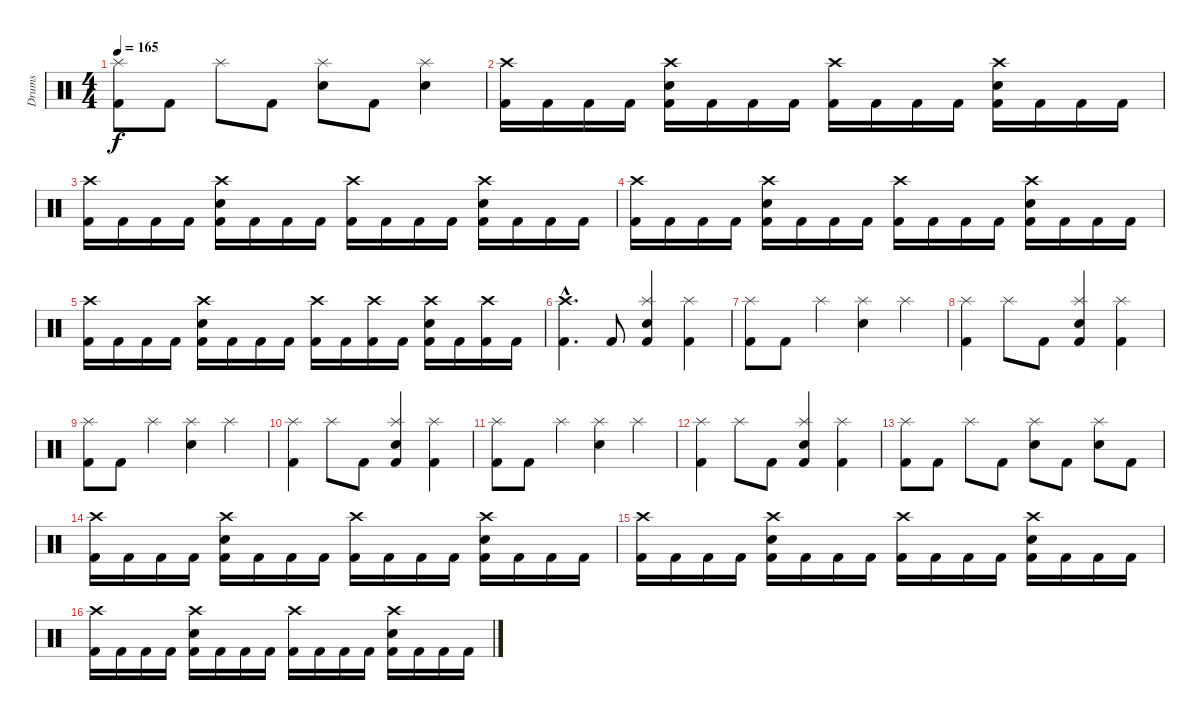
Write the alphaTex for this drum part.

\track ("Drums" "Drums") {instrument percussion}
\staff {score}
\articulation defaults
\ts (4 4)
\tempo 165
\clef neutral
\ks c
("Kick (hit) 2" "Splash (hit)").8{dy f} "Kick (hit) 2".8 "Splash (hit)".8 "Kick (hit) 2".8 ("Snare (hit) 2" "Splash (hit)").8 "Kick (hit) 2".8 ("Snare (hit) 2" "Splash (hit)").4 |
("Kick (hit) 2" "Crash high (hit)").16 "Kick (hit) 2".16 "Kick (hit) 2".16 "Kick (hit) 2".16 ("Kick (hit) 2" "Snare (hit) 2" "Crash high (hit)").16 "Kick (hit) 2".16 "Kick (hit) 2".16 "Kick (hit) 2".16 ("Kick (hit) 2" "Crash high (hit)").16 "Kick (hit) 2".16 "Kick (hit) 2".16 "Kick (hit) 2".16 ("Kick (hit) 2" "Snare (hit) 2" "Crash high (hit)").16 "Kick (hit) 2".16 "Kick (hit) 2".16 "Kick (hit) 2".16 |
("Kick (hit) 2" "Crash high (hit)").16 "Kick (hit) 2".16 "Kick (hit) 2".16 "Kick (hit) 2".16 ("Kick (hit) 2" "Snare (hit) 2" "Crash high (hit)").16 "Kick (hit) 2".16 "Kick (hit) 2".16 "Kick (hit) 2".16 ("Kick (hit) 2" "Crash high (hit)").16 "Kick (hit) 2".16 "Kick (hit) 2".16 "Kick (hit) 2".16 ("Kick (hit) 2" "Snare (hit) 2" "Crash high (hit)").16 "Kick (hit) 2".16 "Kick (hit) 2".16 "Kick (hit) 2".16 |
("Kick (hit) 2" "Crash high (hit)").16 "Kick (hit) 2".16 "Kick (hit) 2".16 "Kick (hit) 2".16 ("Kick (hit) 2" "Snare (hit) 2" "Crash high (hit)").16 "Kick (hit) 2".16 "Kick (hit) 2".16 "Kick (hit) 2".16 ("Kick (hit) 2" "Crash high (hit)").16 "Kick (hit) 2".16 "Kick (hit) 2".16 "Kick (hit) 2".16 ("Kick (hit) 2" "Snare (hit) 2" "Crash high (hit)").16 "Kick (hit) 2".16 "Kick (hit) 2".16 "Kick (hit) 2".16 |
("Kick (hit) 2" "Crash high (hit)").16 "Kick (hit) 2".16 "Kick (hit) 2".16 "Kick (hit) 2".16 ("Kick (hit) 2" "Snare (hit) 2" "Crash high (hit)").16 "Kick (hit) 2".16 "Kick (hit) 2".16 "Kick (hit) 2".16 ("Kick (hit) 2" "Crash high (hit)").16 "Kick (hit) 2".16 ("Kick (hit) 2" "Crash high (hit)").16 "Kick (hit) 2".16 ("Kick (hit) 2" "Snare (hit) 2" "Crash high (hit)").16 "Kick (hit) 2".16 ("Kick (hit) 2" "Crash high (hit)").16 "Kick (hit) 2".16 |
("Kick (hit) 2"{hac} "Crash high (hit)"{hac}).4{d} "Kick (hit) 2".8 ("Kick (hit) 2" "Snare (hit) 2" "Splash (hit)").4 ("Kick (hit) 2" "Splash (hit)").4 |
("Kick (hit) 2" "Splash (hit)").8 "Kick (hit) 2".8 "Splash (hit)".4 ("Snare (hit) 2" "Splash (hit)").4 "Splash (hit)".4 |
("Kick (hit) 2" "Splash (hit)").4 "Splash (hit)".8 "Kick (hit) 2".8 ("Kick (hit) 2" "Snare (hit) 2" "Splash (hit)").4 ("Kick (hit) 2" "Splash (hit)").4 |
("Kick (hit) 2" "Splash (hit)").8 "Kick (hit) 2".8 "Splash (hit)".4 ("Snare (hit) 2" "Splash (hit)").4 "Splash (hit)".4 |
("Kick (hit) 2" "Splash (hit)").4 "Splash (hit)".8 "Kick (hit) 2".8 ("Kick (hit) 2" "Snare (hit) 2" "Splash (hit)").4 ("Kick (hit) 2" "Splash (hit)").4 |
("Kick (hit) 2" "Splash (hit)").8 "Kick (hit) 2".8 "Splash (hit)".4 ("Snare (hit) 2" "Splash (hit)").4 "Splash (hit)".4 |
("Kick (hit) 2" "Splash (hit)").4 "Splash (hit)".8 "Kick (hit) 2".8 ("Kick (hit) 2" "Snare (hit) 2" "Splash (hit)").4 ("Kick (hit) 2" "Splash (hit)").4 |
("Kick (hit) 2" "Splash (hit)").8 "Kick (hit) 2".8 "Splash (hit)".8 "Kick (hit) 2".8 ("Snare (hit) 2" "Splash (hit)").8 "Kick (hit) 2".8 ("Snare (hit) 2" "Splash (hit)").8 "Kick (hit) 2".8 |
("Kick (hit) 2" "Crash high (hit)").16 "Kick (hit) 2".16 "Kick (hit) 2".16 "Kick (hit) 2".16 ("Kick (hit) 2" "Snare (hit) 2" "Crash high (hit)").16 "Kick (hit) 2".16 "Kick (hit) 2".16 "Kick (hit) 2".16 ("Kick (hit) 2" "Crash high (hit)").16 "Kick (hit) 2".16 "Kick (hit) 2".16 "Kick (hit) 2".16 ("Kick (hit) 2" "Snare (hit) 2" "Crash high (hit)").16 "Kick (hit) 2".16 "Kick (hit) 2".16 "Kick (hit) 2".16 |
("Kick (hit) 2" "Crash high (hit)").16 "Kick (hit) 2".16 "Kick (hit) 2".16 "Kick (hit) 2".16 ("Kick (hit) 2" "Snare (hit) 2" "Crash high (hit)").16 "Kick (hit) 2".16 "Kick (hit) 2".16 "Kick (hit) 2".16 ("Kick (hit) 2" "Crash high (hit)").16 "Kick (hit) 2".16 "Kick (hit) 2".16 "Kick (hit) 2".16 ("Kick (hit) 2" "Snare (hit) 2" "Crash high (hit)").16 "Kick (hit) 2".16 "Kick (hit) 2".16 "Kick (hit) 2".16 |
("Kick (hit) 2" "Crash high (hit)").16 "Kick (hit) 2".16 "Kick (hit) 2".16 "Kick (hit) 2".16 ("Kick (hit) 2" "Snare (hit) 2" "Crash high (hit)").16 "Kick (hit) 2".16 "Kick (hit) 2".16 "Kick (hit) 2".16 ("Kick (hit) 2" "Crash high (hit)").16 "Kick (hit) 2".16 "Kick (hit) 2".16 "Kick (hit) 2".16 ("Kick (hit) 2" "Snare (hit) 2" "Crash high (hit)").16 "Kick (hit) 2".16 "Kick (hit) 2".16 "Kick (hit) 2".16
